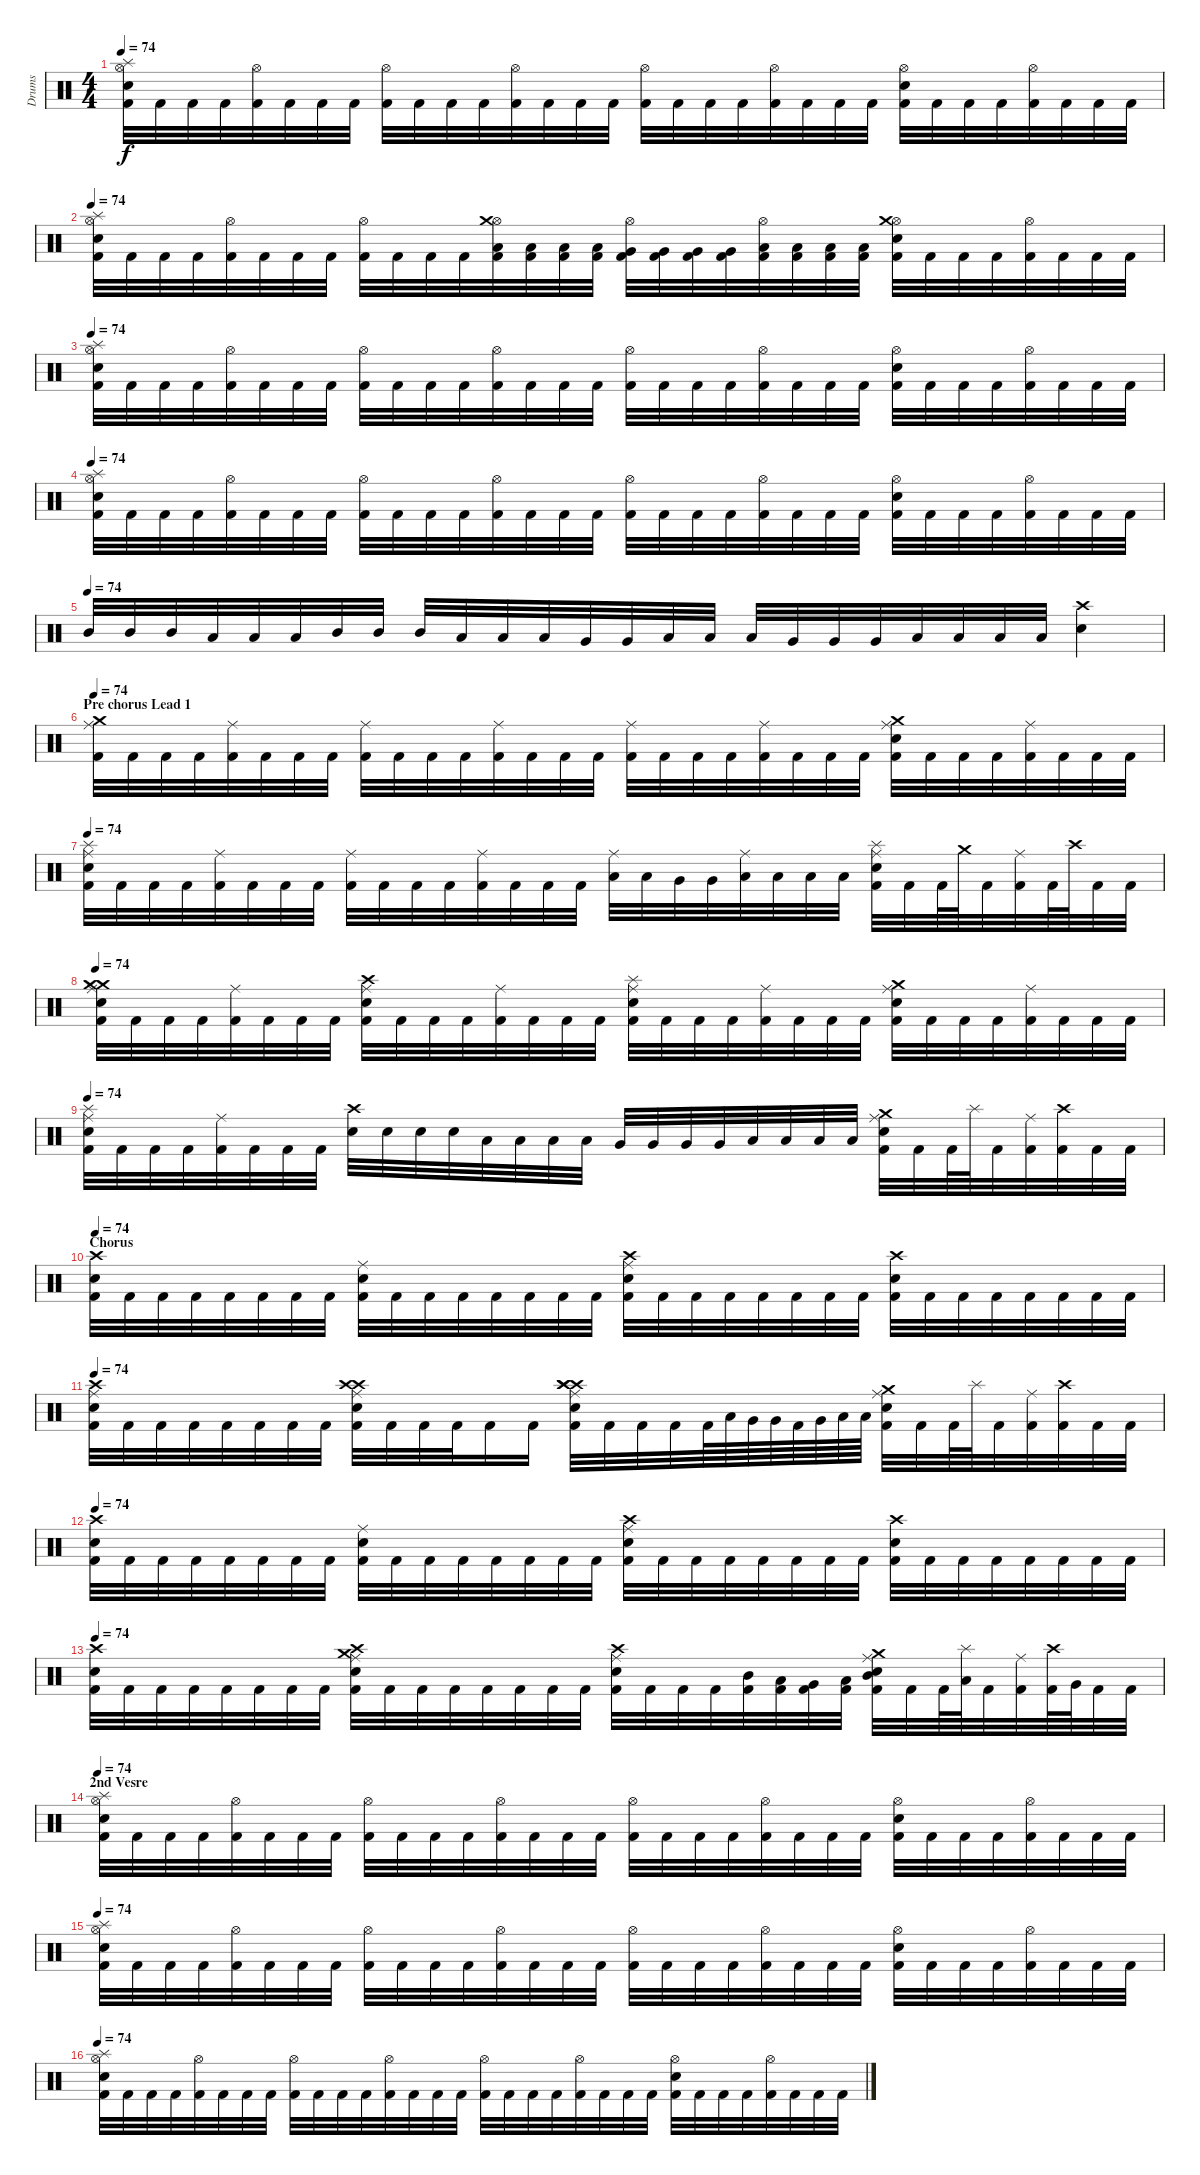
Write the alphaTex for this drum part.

\track ("Drums" "Drums") {instrument percussion}
\staff {score}
\articulation defaults
\ts (4 4)
\tempo 74
\clef neutral
\ks c
("Hi-Hat (open)" "Kick (hit) 2" "Splash (hit)" "Electric Snare (hit)").32{dy f} "Kick (hit) 2".32 "Kick (hit) 2".32 "Kick (hit) 2".32 ("Hi-Hat (open)" "Kick (hit) 2").32 "Kick (hit) 2".32 "Kick (hit) 2".32 "Kick (hit) 2".32 ("Hi-Hat (open)" "Kick (hit) 2").32 "Kick (hit) 2".32 "Kick (hit) 2".32 "Kick (hit) 2".32 ("Hi-Hat (open)" "Kick (hit) 2").32 "Kick (hit) 2".32 "Kick (hit) 2".32 "Kick (hit) 2".32 ("Hi-Hat (open)" "Kick (hit) 2").32 "Kick (hit) 2".32 "Kick (hit) 2".32 "Kick (hit) 2".32 ("Hi-Hat (open)" "Kick (hit) 2").32 "Kick (hit) 2".32 "Kick (hit) 2".32 "Kick (hit) 2".32 ("Hi-Hat (open)" "Electric Snare (hit)" "Kick (hit) 2").32 "Kick (hit) 2".32 "Kick (hit) 2".32 "Kick (hit) 2".32 ("Hi-Hat (open)" "Kick (hit) 2").32 "Kick (hit) 2".32 "Kick (hit) 2".32 "Kick (hit) 2".32 |
\tempo 74
("Electric Snare (hit)" "Splash (hit)" "Kick (hit) 2" "Hi-Hat (open)").32 "Kick (hit) 2".32 "Kick (hit) 2".32 "Kick (hit) 2".32 ("Hi-Hat (open)" "Kick (hit) 2").32 "Kick (hit) 2".32 "Kick (hit) 2".32 "Kick (hit) 2".32 ("Hi-Hat (open)" "Kick (hit) 2").32 "Kick (hit) 2".32 "Kick (hit) 2".32 "Kick (hit) 2".32 ("Hi-Hat (open)" "Kick (hit) 2" "Low Tom (hit)" "Crash medium (hit)").32 ("Kick (hit) 2" "Low Tom (hit)").32 ("Kick (hit) 2" "Low Tom (hit)").32 ("Kick (hit) 2" "Low Tom (hit)").32 ("Hi-Hat (open)" "Kick (hit) 2" "Very Low Tom (hit)").32 ("Kick (hit) 2" "Very Low Tom (hit)").32 ("Kick (hit) 2" "Very Low Tom (hit)").32 ("Kick (hit) 2" "Very Low Tom (hit)").32 ("Hi-Hat (open)" "Kick (hit) 2" "Low Floor Tom (hit)").32 ("Kick (hit) 2" "Low Floor Tom (hit)").32 ("Kick (hit) 2" "Low Floor Tom (hit)").32 ("Kick (hit) 2" "Low Floor Tom (hit)").32 ("Hi-Hat (open)" "Electric Snare (hit)" "Kick (hit) 2" "Crash medium (hit)").32 "Kick (hit) 2".32 "Kick (hit) 2".32 "Kick (hit) 2".32 ("Hi-Hat (open)" "Kick (hit) 2").32 "Kick (hit) 2".32 "Kick (hit) 2".32 "Kick (hit) 2".32 |
\tempo 74
("Electric Snare (hit)" "Splash (hit)" "Kick (hit) 2" "Hi-Hat (open)").32 "Kick (hit) 2".32 "Kick (hit) 2".32 "Kick (hit) 2".32 ("Hi-Hat (open)" "Kick (hit) 2").32 "Kick (hit) 2".32 "Kick (hit) 2".32 "Kick (hit) 2".32 ("Hi-Hat (open)" "Kick (hit) 2").32 "Kick (hit) 2".32 "Kick (hit) 2".32 "Kick (hit) 2".32 ("Hi-Hat (open)" "Kick (hit) 2").32 "Kick (hit) 2".32 "Kick (hit) 2".32 "Kick (hit) 2".32 ("Hi-Hat (open)" "Kick (hit) 2").32 "Kick (hit) 2".32 "Kick (hit) 2".32 "Kick (hit) 2".32 ("Hi-Hat (open)" "Kick (hit) 2").32 "Kick (hit) 2".32 "Kick (hit) 2".32 "Kick (hit) 2".32 ("Hi-Hat (open)" "Electric Snare (hit)" "Kick (hit) 2").32 "Kick (hit) 2".32 "Kick (hit) 2".32 "Kick (hit) 2".32 ("Hi-Hat (open)" "Kick (hit) 2").32 "Kick (hit) 2".32 "Kick (hit) 2".32 "Kick (hit) 2".32 |
\tempo 74
("Hi-Hat (open)" "Kick (hit) 2" "Splash (hit)" "Electric Snare (hit)").32 "Kick (hit) 2".32 "Kick (hit) 2".32 "Kick (hit) 2".32 ("Hi-Hat (open)" "Kick (hit) 2").32 "Kick (hit) 2".32 "Kick (hit) 2".32 "Kick (hit) 2".32 ("Hi-Hat (open)" "Kick (hit) 2").32 "Kick (hit) 2".32 "Kick (hit) 2".32 "Kick (hit) 2".32 ("Hi-Hat (open)" "Kick (hit) 2").32 "Kick (hit) 2".32 "Kick (hit) 2".32 "Kick (hit) 2".32 ("Hi-Hat (open)" "Kick (hit) 2").32 "Kick (hit) 2".32 "Kick (hit) 2".32 "Kick (hit) 2".32 ("Hi-Hat (open)" "Kick (hit) 2").32 "Kick (hit) 2".32 "Kick (hit) 2".32 "Kick (hit) 2".32 ("Hi-Hat (open)" "Electric Snare (hit)" "Kick (hit) 2").32 "Kick (hit) 2".32 "Kick (hit) 2".32 "Kick (hit) 2".32 ("Hi-Hat (open)" "Kick (hit) 2").32 "Kick (hit) 2".32 "Kick (hit) 2".32 "Kick (hit) 2".32 |
\tempo (74)
"Mid Tom (hit)".32 "Mid Tom (hit)".32 "Mid Tom (hit)".32 "Low Tom (hit)".32 "Low Tom (hit)".32 "Low Tom (hit)".32 "Mid Tom (hit)".32 "Mid Tom (hit)".32 "Mid Tom (hit)".32 "Low Tom (hit)".32 "Low Tom (hit)".32 "Low Tom (hit)".32 "Very Low Tom (hit)".32 "Very Low Tom (hit)".32 "Low Tom (hit)".32 "Low Tom (hit)".32 "Low Tom (hit)".32 "Very Low Tom (hit)".32 "Very Low Tom (hit)".32 "Very Low Tom (hit)".32 "Low Floor Tom (hit)".32 "Low Floor Tom (hit)".32 "Low Floor Tom (hit)".32 "Low Floor Tom (hit)".32 ("Crash high (hit)" "Electric Snare (hit)").4 |
\section ("" "Pre chorus Lead 1")
\tempo 74
("Crash medium (hit)" "Ride (middle)" "Kick (hit) 2").32 "Kick (hit) 2".32 "Kick (hit) 2".32 "Kick (hit) 2".32 ("Ride (middle)" "Kick (hit) 2").32 "Kick (hit) 2".32 "Kick (hit) 2".32 "Kick (hit) 2".32 ("Ride (middle)" "Kick (hit) 2").32 "Kick (hit) 2".32 "Kick (hit) 2".32 "Kick (hit) 2".32 ("Ride (middle)" "Kick (hit) 2").32 "Kick (hit) 2".32 "Kick (hit) 2".32 "Kick (hit) 2".32 ("Ride (middle)" "Kick (hit) 2").32 "Kick (hit) 2".32 "Kick (hit) 2".32 "Kick (hit) 2".32 ("Ride (middle)" "Kick (hit) 2").32 "Kick (hit) 2".32 "Kick (hit) 2".32 "Kick (hit) 2".32 ("Crash medium (hit)" "Ride (middle)" "Kick (hit) 2" "Electric Snare (hit)").32 "Kick (hit) 2".32 "Kick (hit) 2".32 "Kick (hit) 2".32 ("Ride (middle)" "Kick (hit) 2").32 "Kick (hit) 2".32 "Kick (hit) 2".32 "Kick (hit) 2".32 |
\tempo 74
("Electric Snare (hit)" "Kick (hit) 2" "Ride (middle)" "Splash (hit)").32 "Kick (hit) 2".32 "Kick (hit) 2".32 "Kick (hit) 2".32 ("Ride (middle)" "Kick (hit) 2").32 "Kick (hit) 2".32 "Kick (hit) 2".32 "Kick (hit) 2".32 ("Ride (middle)" "Kick (hit) 2").32 "Kick (hit) 2".32 "Kick (hit) 2".32 "Kick (hit) 2".32 ("Ride (middle)" "Kick (hit) 2").32 "Kick (hit) 2".32 "Kick (hit) 2".32 "Kick (hit) 2".32 ("Ride (middle)" "Low Tom (hit)").32 "Low Tom (hit)".32 "Very Low Tom (hit)".32 "Very Low Tom (hit)".32 ("Ride (middle)" "Low Floor Tom (hit)").32 "Low Floor Tom (hit)".32 "Low Floor Tom (hit)".32 "Low Floor Tom (hit)".32 ("Ride (middle)" "Kick (hit) 2" "Electric Snare (hit)" "Splash (hit)").32 "Kick (hit) 2".32 "Kick (hit) 2".64 "Crash medium (hit)".64 "Kick (hit) 2".32 ("Ride (middle)" "Kick (hit) 2").32 "Kick (hit) 2".64 "Crash high (hit)".64 "Kick (hit) 2".32 "Kick (hit) 2".32 |
\tempo 74
("Crash medium (hit)" "Kick (hit) 2" "Ride (middle)" "Crash medium (hit)" "Electric Snare (hit)").32 "Kick (hit) 2".32 "Kick (hit) 2".32 "Kick (hit) 2".32 ("Ride (middle)" "Kick (hit) 2").32 "Kick (hit) 2".32 "Kick (hit) 2".32 "Kick (hit) 2".32 ("Ride (middle)" "Kick (hit) 2" "Electric Snare (hit)" "Crash high (hit)").32 "Kick (hit) 2".32 "Kick (hit) 2".32 "Kick (hit) 2".32 ("Ride (middle)" "Kick (hit) 2").32 "Kick (hit) 2".32 "Kick (hit) 2".32 "Kick (hit) 2".32 ("Ride (middle)" "Kick (hit) 2" "Electric Snare (hit)" "Splash (hit)").32 "Kick (hit) 2".32 "Kick (hit) 2".32 "Kick (hit) 2".32 ("Ride (middle)" "Kick (hit) 2").32 "Kick (hit) 2".32 "Kick (hit) 2".32 "Kick (hit) 2".32 ("Crash medium (hit)" "Ride (middle)" "Kick (hit) 2" "Electric Snare (hit)").32 "Kick (hit) 2".32 "Kick (hit) 2".32 "Kick (hit) 2".32 ("Ride (middle)" "Kick (hit) 2").32 "Kick (hit) 2".32 "Kick (hit) 2".32 "Kick (hit) 2".32 |
\tempo 74
("Splash (hit)" "Ride (middle)" "Kick (hit) 2" "Electric Snare (hit)").32 "Kick (hit) 2".32 "Kick (hit) 2".32 "Kick (hit) 2".32 ("Ride (middle)" "Kick (hit) 2").32 "Kick (hit) 2".32 "Kick (hit) 2".32 "Kick (hit) 2".32 ("Electric Snare (hit)" "Crash high (hit)").32 "Electric Snare (hit)".32 "Electric Snare (hit)".32 "Electric Snare (hit)".32 "Low Tom (hit)".32 "Low Tom (hit)".32 "Low Tom (hit)".32 "Low Tom (hit)".32 "Very Low Tom (hit)".32 "Very Low Tom (hit)".32 "Very Low Tom (hit)".32 "Very Low Tom (hit)".32 "Low Floor Tom (hit)".32 "Low Floor Tom (hit)".32 "Low Floor Tom (hit)".32 "Low Floor Tom (hit)".32 ("Crash medium (hit)" "Electric Snare (hit)" "Kick (hit) 2" "Ride (middle)").32 "Kick (hit) 2".32 "Kick (hit) 2".64 "Splash (hit)".64 "Kick (hit) 2".32 ("Ride (middle)" "Kick (hit) 2").32 ("Kick (hit) 2" "Crash high (hit)").32 "Kick (hit) 2".32 "Kick (hit) 2".32 |
\section ("" "Chorus")
\tempo 74
("Crash high (hit)" "Kick (hit) 2" "Electric Snare (hit)").32 "Kick (hit) 2".32 "Kick (hit) 2".32 "Kick (hit) 2".32 "Kick (hit) 2".32 "Kick (hit) 2".32 "Kick (hit) 2".32 "Kick (hit) 2".32 ("Electric Snare (hit)" "Kick (hit) 2" "Ride (middle)").32 "Kick (hit) 2".32 "Kick (hit) 2".32 "Kick (hit) 2".32 "Kick (hit) 2".32 "Kick (hit) 2".32 "Kick (hit) 2".32 "Kick (hit) 2".32 ("Electric Snare (hit)" "Kick (hit) 2" "Crash high (hit)" "Ride (middle)").32 "Kick (hit) 2".32 "Kick (hit) 2".32 "Kick (hit) 2".32 "Kick (hit) 2".32 "Kick (hit) 2".32 "Kick (hit) 2".32 "Kick (hit) 2".32 ("Electric Snare (hit)" "Kick (hit) 2" "Crash high (hit)").32 "Kick (hit) 2".32 "Kick (hit) 2".32 "Kick (hit) 2".32 "Kick (hit) 2".32 "Kick (hit) 2".32 "Kick (hit) 2".32 "Kick (hit) 2".32 |
\tempo 74
("Crash high (hit)" "Electric Snare (hit)" "Kick (hit) 2" "Ride (middle)").32 "Kick (hit) 2".32 "Kick (hit) 2".32 "Kick (hit) 2".32 "Kick (hit) 2".32 "Kick (hit) 2".32 "Kick (hit) 2".32 "Kick (hit) 2".32 ("Crash high (hit)" "Electric Snare (hit)" "Crash high (hit)" "Kick (hit) 2" "Ride (middle)").32 "Kick (hit) 2".32 "Kick (hit) 2".32 "Kick (hit) 2".32 "Kick (hit) 2".16 "Kick (hit) 2".16 ("Crash high (hit)" "Crash high (hit)" "Electric Snare (hit)" "Crash high (hit)" "Kick (hit) 2" "Ride (middle)").32 "Kick (hit) 2".32 "Kick (hit) 2".32 "Kick (hit) 2".32 "Kick (hit) 2".64 "Low Tom (hit)".64 "Very Low Tom (hit)".64 "Very Low Tom (hit)".64 "Kick (hit) 2".64 "Very Low Tom (hit)".64 "Low Floor Tom (hit)".64 "Low Floor Tom (hit)".64 ("Ride (middle)" "Kick (hit) 2" "Crash medium (hit)" "Electric Snare (hit)").32 "Kick (hit) 2".32 "Kick (hit) 2".64 "Splash (hit)".64 "Kick (hit) 2".32 ("Ride (middle)" "Kick (hit) 2").32 ("Kick (hit) 2" "Crash high (hit)").32 "Kick (hit) 2".32 "Kick (hit) 2".32 |
\tempo 74
("Electric Snare (hit)" "Kick (hit) 2" "Crash high (hit)").32 "Kick (hit) 2".32 "Kick (hit) 2".32 "Kick (hit) 2".32 "Kick (hit) 2".32 "Kick (hit) 2".32 "Kick (hit) 2".32 "Kick (hit) 2".32 ("Electric Snare (hit)" "Kick (hit) 2" "Ride (middle)").32 "Kick (hit) 2".32 "Kick (hit) 2".32 "Kick (hit) 2".32 "Kick (hit) 2".32 "Kick (hit) 2".32 "Kick (hit) 2".32 "Kick (hit) 2".32 ("Electric Snare (hit)" "Kick (hit) 2" "Crash high (hit)" "Ride (middle)").32 "Kick (hit) 2".32 "Kick (hit) 2".32 "Kick (hit) 2".32 "Kick (hit) 2".32 "Kick (hit) 2".32 "Kick (hit) 2".32 "Kick (hit) 2".32 ("Electric Snare (hit)" "Kick (hit) 2" "Crash high (hit)").32 "Kick (hit) 2".32 "Kick (hit) 2".32 "Kick (hit) 2".32 "Kick (hit) 2".32 "Kick (hit) 2".32 "Kick (hit) 2".32 "Kick (hit) 2".32 |
\tempo 74
("Electric Snare (hit)" "Kick (hit) 2" "Crash high (hit)").32 "Kick (hit) 2".32 "Kick (hit) 2".32 "Kick (hit) 2".32 "Kick (hit) 2".32 "Kick (hit) 2".32 "Kick (hit) 2".32 "Kick (hit) 2".32 ("Electric Snare (hit)" "Kick (hit) 2" "Ride (middle)" "Crash medium (hit)" "Crash high (hit)").32 "Kick (hit) 2".32 "Kick (hit) 2".32 "Kick (hit) 2".32 "Kick (hit) 2".32 "Kick (hit) 2".32 "Kick (hit) 2".32 "Kick (hit) 2".32 ("Electric Snare (hit)" "Kick (hit) 2" "Crash high (hit)" "Ride (middle)").32 "Kick (hit) 2".32 "Kick (hit) 2".32 "Kick (hit) 2".32 ("Kick (hit) 2" "Mid Tom (hit)").32 ("Kick (hit) 2" "Low Tom (hit)").32 ("Kick (hit) 2" "Very Low Tom (hit)").32 ("Kick (hit) 2" "Low Tom (hit)").32 ("Kick (hit) 2" "Electric Snare (hit)" "Crash medium (hit)" "Ride (middle)" "Mid Tom (hit)").32 "Kick (hit) 2".32 "Kick (hit) 2".64 ("Splash (hit)" "Low Tom (hit)").64 "Kick (hit) 2".32 ("Kick (hit) 2" "Ride (middle)").32 ("Kick (hit) 2" "Crash high (hit)").64 "Very Low Tom (hit)".64 "Kick (hit) 2".32 "Kick (hit) 2".32 |
\section ("" "2nd Vesre")
\tempo 74
("Splash (hit)" "Kick (hit) 2" "Hi-Hat (open)" "Electric Snare (hit)").32 "Kick (hit) 2".32 "Kick (hit) 2".32 "Kick (hit) 2".32 ("Hi-Hat (open)" "Kick (hit) 2").32 "Kick (hit) 2".32 "Kick (hit) 2".32 "Kick (hit) 2".32 ("Hi-Hat (open)" "Kick (hit) 2").32 "Kick (hit) 2".32 "Kick (hit) 2".32 "Kick (hit) 2".32 ("Hi-Hat (open)" "Kick (hit) 2").32 "Kick (hit) 2".32 "Kick (hit) 2".32 "Kick (hit) 2".32 ("Hi-Hat (open)" "Kick (hit) 2").32 "Kick (hit) 2".32 "Kick (hit) 2".32 "Kick (hit) 2".32 ("Hi-Hat (open)" "Kick (hit) 2").32 "Kick (hit) 2".32 "Kick (hit) 2".32 "Kick (hit) 2".32 ("Hi-Hat (open)" "Electric Snare (hit)" "Kick (hit) 2").32 "Kick (hit) 2".32 "Kick (hit) 2".32 "Kick (hit) 2".32 ("Hi-Hat (open)" "Kick (hit) 2").32 "Kick (hit) 2".32 "Kick (hit) 2".32 "Kick (hit) 2".32 |
\tempo 74
("Electric Snare (hit)" "Splash (hit)" "Kick (hit) 2" "Hi-Hat (open)").32 "Kick (hit) 2".32 "Kick (hit) 2".32 "Kick (hit) 2".32 ("Hi-Hat (open)" "Kick (hit) 2").32 "Kick (hit) 2".32 "Kick (hit) 2".32 "Kick (hit) 2".32 ("Hi-Hat (open)" "Kick (hit) 2").32 "Kick (hit) 2".32 "Kick (hit) 2".32 "Kick (hit) 2".32 ("Hi-Hat (open)" "Kick (hit) 2").32 "Kick (hit) 2".32 "Kick (hit) 2".32 "Kick (hit) 2".32 ("Hi-Hat (open)" "Kick (hit) 2").32 "Kick (hit) 2".32 "Kick (hit) 2".32 "Kick (hit) 2".32 ("Hi-Hat (open)" "Kick (hit) 2").32 "Kick (hit) 2".32 "Kick (hit) 2".32 "Kick (hit) 2".32 ("Hi-Hat (open)" "Electric Snare (hit)" "Kick (hit) 2").32 "Kick (hit) 2".32 "Kick (hit) 2".32 "Kick (hit) 2".32 ("Hi-Hat (open)" "Kick (hit) 2").32 "Kick (hit) 2".32 "Kick (hit) 2".32 "Kick (hit) 2".32 |
\tempo 74
("Hi-Hat (open)" "Kick (hit) 2" "Splash (hit)" "Electric Snare (hit)").32 "Kick (hit) 2".32 "Kick (hit) 2".32 "Kick (hit) 2".32 ("Hi-Hat (open)" "Kick (hit) 2").32 "Kick (hit) 2".32 "Kick (hit) 2".32 "Kick (hit) 2".32 ("Hi-Hat (open)" "Kick (hit) 2").32 "Kick (hit) 2".32 "Kick (hit) 2".32 "Kick (hit) 2".32 ("Hi-Hat (open)" "Kick (hit) 2").32 "Kick (hit) 2".32 "Kick (hit) 2".32 "Kick (hit) 2".32 ("Hi-Hat (open)" "Kick (hit) 2").32 "Kick (hit) 2".32 "Kick (hit) 2".32 "Kick (hit) 2".32 ("Hi-Hat (open)" "Kick (hit) 2").32 "Kick (hit) 2".32 "Kick (hit) 2".32 "Kick (hit) 2".32 ("Hi-Hat (open)" "Electric Snare (hit)" "Kick (hit) 2").32 "Kick (hit) 2".32 "Kick (hit) 2".32 "Kick (hit) 2".32 ("Hi-Hat (open)" "Kick (hit) 2").32 "Kick (hit) 2".32 "Kick (hit) 2".32 "Kick (hit) 2".32
